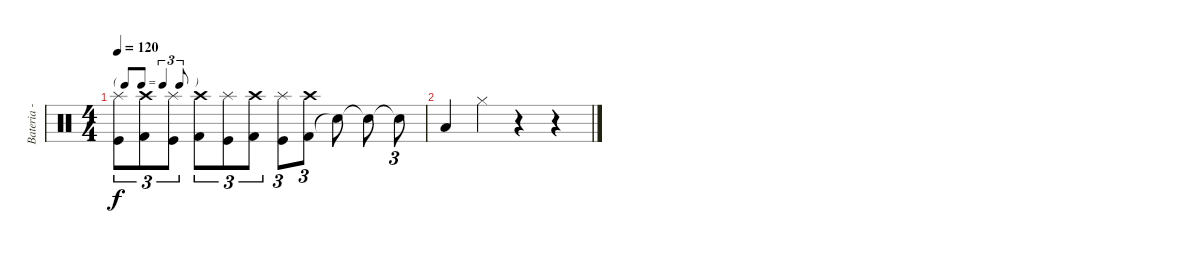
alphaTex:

\track ("Bateria - Cris Layton" "Bateria - ") {instrument percussion}
\staff {score}
\articulation defaults
\ts (4 4)
\tf triplet8th
\tempo 120
\clef neutral
\ks c
("Kick (hit)" "Splash (hit)").8{tu (3 2) dy f} ("Kick (hit) 2" "Crash high (hit)").8{tu (3 2)} ("Kick (hit)" "Splash (hit)").8{tu (3 2)} ("Kick (hit) 2" "Crash high (hit)").8{tu (3 2)} ("Kick (hit)" "Splash (hit)").8{tu (3 2)} ("Kick (hit) 2" "Crash high (hit)").8{tu (3 2)} ("Kick (hit)" "Splash (hit)").8{tu (3 2)} ("Kick (hit) 2" "Crash high (hit)").8{tu (3 2)} "Snare (hit)"{t}.8 "Snare (hit)"{t}.8 "Snare (hit)"{t}.8{tu (3 2)} |
"Low Floor Tom (hit)".4 "Hi-Hat (closed)".4 r.4 r.4
